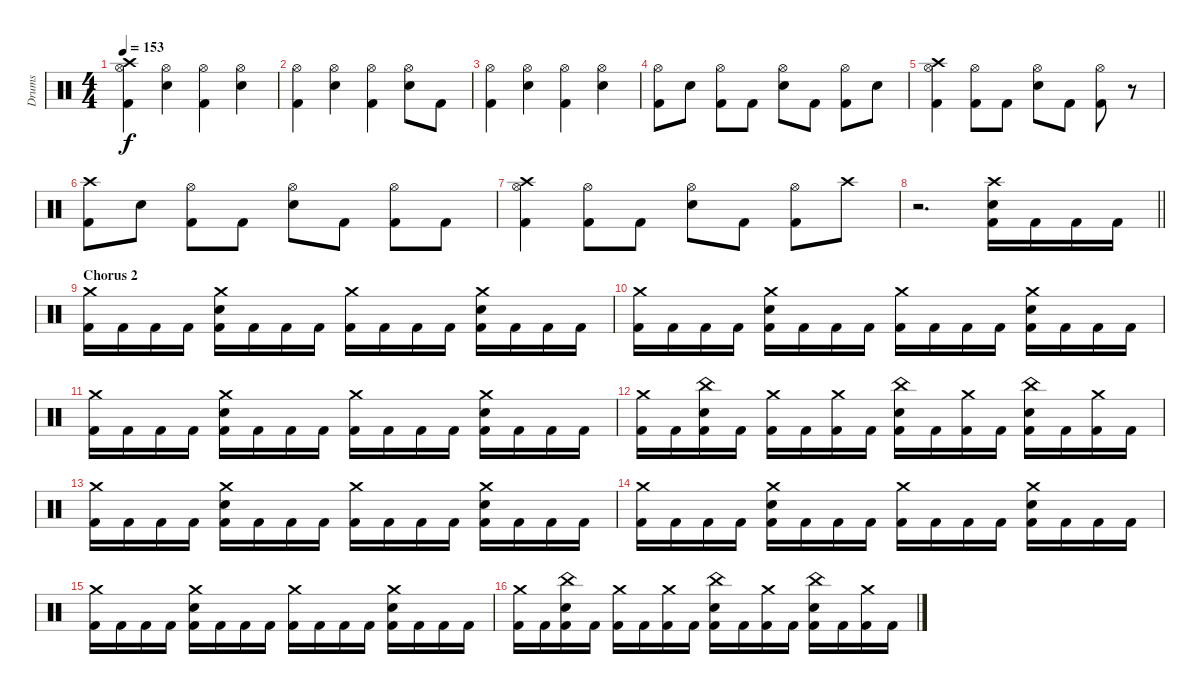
\track ("Drums" "Drums") {instrument percussion}
\staff {score}
\articulation defaults
\ts (4 4)
\tempo 153
\clef neutral
\ks c
("Crash high (hit)" "Hi-Hat (open)" "Kick (hit) 2").4{dy f} ("Hi-Hat (open)" "Electric Snare (hit)").4 ("Hi-Hat (open)" "Kick (hit) 2").4 ("Hi-Hat (open)" "Electric Snare (hit)").4 |
("Hi-Hat (open)" "Kick (hit) 2").4 ("Hi-Hat (open)" "Electric Snare (hit)").4 ("Hi-Hat (open)" "Kick (hit) 2").4 ("Hi-Hat (open)" "Electric Snare (hit)").8 "Kick (hit) 2".8 |
("Hi-Hat (open)" "Kick (hit) 2").4 ("Hi-Hat (open)" "Electric Snare (hit)").4 ("Hi-Hat (open)" "Kick (hit) 2").4 ("Hi-Hat (open)" "Electric Snare (hit)").4 |
("Hi-Hat (open)" "Kick (hit) 2").8 "Electric Snare (hit)".8 ("Hi-Hat (open)" "Kick (hit) 2").8 "Kick (hit) 2".8 ("Hi-Hat (open)" "Electric Snare (hit)").8 "Kick (hit) 2".8 ("Hi-Hat (open)" "Kick (hit) 2").8 "Electric Snare (hit)".8 |
("Crash high (hit)" "Hi-Hat (open)" "Kick (hit) 2").4 ("Hi-Hat (open)" "Kick (hit) 2").8 "Kick (hit) 2".8 ("Hi-Hat (open)" "Electric Snare (hit)").8 "Kick (hit) 2".8 ("Hi-Hat (open)" "Kick (hit) 2").8 r.8 |
("Crash high (hit)" "Kick (hit) 2").8 "Electric Snare (hit)".8 ("Hi-Hat (open)" "Kick (hit) 2").8 "Kick (hit) 2".8 ("Hi-Hat (open)" "Electric Snare (hit)").8 "Kick (hit) 2".8 ("Hi-Hat (open)" "Kick (hit) 2").8 "Kick (hit) 2".8 |
("Crash high (hit)" "Hi-Hat (open)" "Kick (hit) 2").4 ("Hi-Hat (open)" "Kick (hit) 2").8 "Kick (hit) 2".8 ("Hi-Hat (open)" "Electric Snare (hit)").8 "Kick (hit) 2".8 ("Hi-Hat (open)" "Kick (hit) 2").8 "Crash high (hit)".8 |
\barLineRight lightlight
r.2{d} ("Crash high (hit)" "Electric Snare (hit)" "Kick (hit) 2").16 "Kick (hit) 2".16 "Kick (hit) 2".16 "Kick (hit) 2".16 |
\section ("" "Chorus 2")
("Crash medium (hit)" "Kick (hit) 2").16 "Kick (hit) 2".16 "Kick (hit) 2".16 "Kick (hit) 2".16 ("Crash medium (hit)" "Electric Snare (hit)" "Kick (hit) 2").16 "Kick (hit) 2".16 "Kick (hit) 2".16 "Kick (hit) 2".16 ("Crash medium (hit)" "Kick (hit) 2").16 "Kick (hit) 2".16 "Kick (hit) 2".16 "Kick (hit) 2".16 ("Crash medium (hit)" "Electric Snare (hit)" "Kick (hit) 2").16 "Kick (hit) 2".16 "Kick (hit) 2".16 "Kick (hit) 2".16 |
("Crash medium (hit)" "Kick (hit) 2").16 "Kick (hit) 2".16 "Kick (hit) 2".16 "Kick (hit) 2".16 ("Crash medium (hit)" "Electric Snare (hit)" "Kick (hit) 2").16 "Kick (hit) 2".16 "Kick (hit) 2".16 "Kick (hit) 2".16 ("Crash medium (hit)" "Kick (hit) 2").16 "Kick (hit) 2".16 "Kick (hit) 2".16 "Kick (hit) 2".16 ("Crash medium (hit)" "Electric Snare (hit)" "Kick (hit) 2").16 "Kick (hit) 2".16 "Kick (hit) 2".16 "Kick (hit) 2".16 |
("Crash medium (hit)" "Kick (hit) 2").16 "Kick (hit) 2".16 "Kick (hit) 2".16 "Kick (hit) 2".16 ("Crash medium (hit)" "Electric Snare (hit)" "Kick (hit) 2").16 "Kick (hit) 2".16 "Kick (hit) 2".16 "Kick (hit) 2".16 ("Crash medium (hit)" "Kick (hit) 2").16 "Kick (hit) 2".16 "Kick (hit) 2".16 "Kick (hit) 2".16 ("Crash medium (hit)" "Electric Snare (hit)" "Kick (hit) 2").16 "Kick (hit) 2".16 "Kick (hit) 2".16 "Kick (hit) 2".16 |
("Crash medium (hit)" "Kick (hit) 2").16 "Kick (hit) 2".16 ("China (hit)" "Electric Snare (hit)" "Kick (hit) 2").16 "Kick (hit) 2".16 ("Crash medium (hit)" "Kick (hit) 2").16 "Kick (hit) 2".16 ("Crash medium (hit)" "Kick (hit) 2").16 "Kick (hit) 2".16 ("China (hit)" "Electric Snare (hit)" "Kick (hit) 2").16 "Kick (hit) 2".16 ("Crash medium (hit)" "Kick (hit) 2").16 "Kick (hit) 2".16 ("China (hit)" "Electric Snare (hit)" "Kick (hit) 2").16 "Kick (hit) 2".16 ("Crash medium (hit)" "Kick (hit) 2").16 "Kick (hit) 2".16 |
("Crash medium (hit)" "Kick (hit) 2").16 "Kick (hit) 2".16 "Kick (hit) 2".16 "Kick (hit) 2".16 ("Crash medium (hit)" "Electric Snare (hit)" "Kick (hit) 2").16 "Kick (hit) 2".16 "Kick (hit) 2".16 "Kick (hit) 2".16 ("Crash medium (hit)" "Kick (hit) 2").16 "Kick (hit) 2".16 "Kick (hit) 2".16 "Kick (hit) 2".16 ("Crash medium (hit)" "Electric Snare (hit)" "Kick (hit) 2").16 "Kick (hit) 2".16 "Kick (hit) 2".16 "Kick (hit) 2".16 |
("Crash medium (hit)" "Kick (hit) 2").16 "Kick (hit) 2".16 "Kick (hit) 2".16 "Kick (hit) 2".16 ("Crash medium (hit)" "Electric Snare (hit)" "Kick (hit) 2").16 "Kick (hit) 2".16 "Kick (hit) 2".16 "Kick (hit) 2".16 ("Crash medium (hit)" "Kick (hit) 2").16 "Kick (hit) 2".16 "Kick (hit) 2".16 "Kick (hit) 2".16 ("Crash medium (hit)" "Electric Snare (hit)" "Kick (hit) 2").16 "Kick (hit) 2".16 "Kick (hit) 2".16 "Kick (hit) 2".16 |
("Crash medium (hit)" "Kick (hit) 2").16 "Kick (hit) 2".16 "Kick (hit) 2".16 "Kick (hit) 2".16 ("Crash medium (hit)" "Electric Snare (hit)" "Kick (hit) 2").16 "Kick (hit) 2".16 "Kick (hit) 2".16 "Kick (hit) 2".16 ("Crash medium (hit)" "Kick (hit) 2").16 "Kick (hit) 2".16 "Kick (hit) 2".16 "Kick (hit) 2".16 ("Crash medium (hit)" "Electric Snare (hit)" "Kick (hit) 2").16 "Kick (hit) 2".16 "Kick (hit) 2".16 "Kick (hit) 2".16 |
("Crash medium (hit)" "Kick (hit) 2").16 "Kick (hit) 2".16 ("China (hit)" "Electric Snare (hit)" "Kick (hit) 2").16 "Kick (hit) 2".16 ("Crash medium (hit)" "Kick (hit) 2").16 "Kick (hit) 2".16 ("Crash medium (hit)" "Kick (hit) 2").16 "Kick (hit) 2".16 ("China (hit)" "Electric Snare (hit)" "Kick (hit) 2").16 "Kick (hit) 2".16 ("Crash medium (hit)" "Kick (hit) 2").16 "Kick (hit) 2".16 ("China (hit)" "Electric Snare (hit)" "Kick (hit) 2").16 "Kick (hit) 2".16 ("Crash medium (hit)" "Kick (hit) 2").16 "Kick (hit) 2".16
